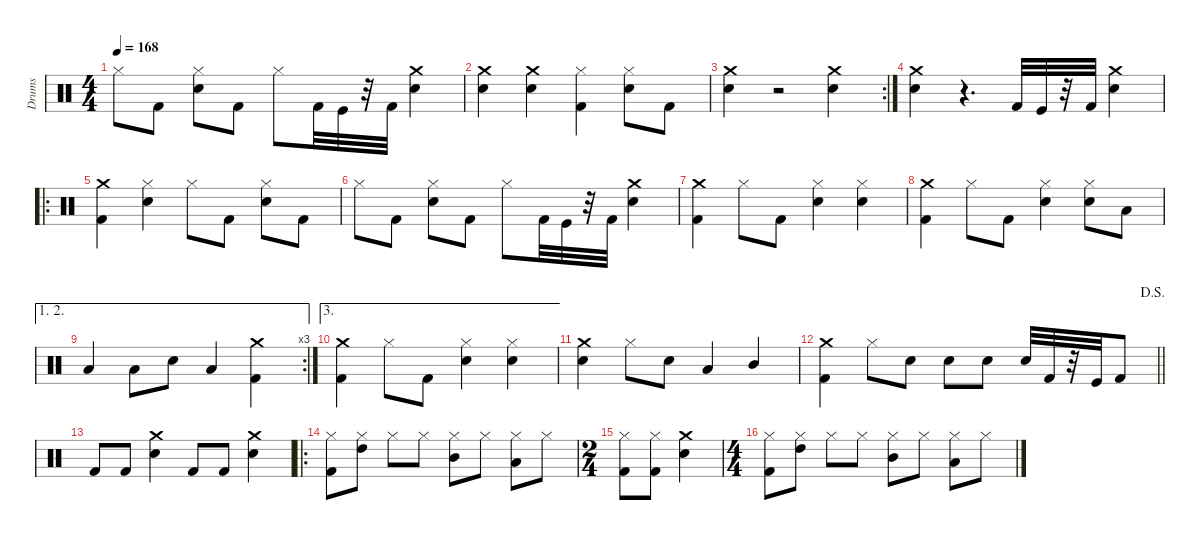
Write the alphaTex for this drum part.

\defaultSystemsLayout 4
\hideDynamics
\bracketExtendMode nobrackets
\firstSystemTrackNameMode fullname
\otherSystemsTrackNameOrientation horizontal
\track ("Drums" "drm.") {instrument percussion}
\staff {score}
\articulation defaults
\ts (4 4)
\tempo 168
\clef neutral
\ks c "Hi-Hat (closed)".8{dy fff beam Down} "Kick (hit) 2".8{beam Down}
("Snare (hit) 2" "Hi-Hat (closed)").8{beam Down} "Kick (hit) 2".8{beam Down} "Hi-Hat (closed)".8{beam Down} "Kick (hit) 2".32{beam Down} "Kick (hit)".32{beam Down} r.32{beam Down} "Kick (hit) 2".32{beam Down} ("Crash medium (hit)" "Snare (hit) 2").4{beam Down} |
("Crash medium (hit)" "Snare (hit) 2").4{beam Down} ("Crash medium (hit)" "Snare (hit) 2").4{beam Down} ("Hi-Hat (closed)" "Kick (hit) 2").4{beam Down} ("Snare (hit) 2" "Hi-Hat (closed)").8{beam Down} "Kick (hit) 2".8{beam Down} |
\rc 2
("Snare (hit) 2" "Crash medium (hit)").4{beam Down} r.2{beam Down} ("Crash medium (hit)" "Snare (hit) 2").4{beam Down} |
("Snare (hit) 2" "Crash medium (hit)").4{beam Down} r.4{d beam Down} "Kick (hit) 2".32{beam Up} "Kick (hit)".32{beam Up} r.32{beam Up} "Kick (hit) 2".32{beam Up} ("Crash medium (hit)" "Snare (hit) 2").4{beam Down} |
\ro
("Kick (hit) 2" "Crash medium (hit)").4{beam Down} ("Hi-Hat (closed)" "Snare (hit) 2").4{beam Down} "Hi-Hat (closed)".8{beam Down} "Kick (hit) 2".8{beam Down} ("Snare (hit) 2" "Hi-Hat (closed)").8{beam Down} "Kick (hit) 2".8{beam Down} |
"Hi-Hat (closed)".8{beam Down} "Kick (hit) 2".8{beam Down} ("Snare (hit) 2" "Hi-Hat (closed)").8{beam Down} "Kick (hit) 2".8{beam Down} "Hi-Hat (closed)".8{beam Down} "Kick (hit) 2".32{beam Down} "Kick (hit)".32{beam Down} r.32{beam Down} "Kick (hit) 2".32{beam Down} ("Crash medium (hit)" "Snare (hit) 2").4{beam Down} |
("Kick (hit) 2" "Crash medium (hit)").4{beam Down} "Hi-Hat (closed)".8{beam Down} "Kick (hit) 2".8{beam Down} ("Snare (hit) 2" "Hi-Hat (closed)").4{beam Down} ("Hi-Hat (closed)" "Snare (hit) 2").4{beam Down} |
("Kick (hit) 2" "Crash medium (hit)").4{beam Down} "Hi-Hat (closed)".8{beam Down} "Kick (hit) 2".8{beam Down} ("Snare (hit) 2" "Hi-Hat (closed)").4{beam Down} ("Hi-Hat (closed)" "Snare (hit) 2").8{beam Down} "Low Tom (hit)".8{beam Down} |
\ae (1 2)
\rc 3 "Low Tom (hit)".4{beam Up} "Low Tom (hit)".8{beam Down} "Snare (hit) 2".8{beam Down} "Low Tom (hit)".4{beam Up}
("Kick (hit) 2" "Crash medium (hit)").4{beam Down} |
\ae 3
("Kick (hit) 2" "Crash medium (hit)").4{beam Down} "Hi-Hat (closed)".8{beam Down} "Kick (hit) 2".8{beam Down} ("Snare (hit) 2" "Hi-Hat (closed)").4{beam Down} ("Hi-Hat (closed)" "Snare (hit) 2").4{beam Down} |
("Snare (hit) 2" "Crash medium (hit)").4{beam Down} "Hi-Hat (closed)".8{beam Down} "Snare (hit) 2".8{beam Down} "Low Tom (hit)".4{beam Up} "Mid Tom (hit)".4{beam Up} |
\jump dalsegno
\barLineRight lightlight
("Kick (hit) 2" "Crash medium (hit)").4{beam Down} "Hi-Hat (closed)".8{beam Down} "Snare (hit) 2".8{beam Down} "Snare (hit) 2".8{beam Down} "Snare (hit) 2".8{beam Down} "Snare (hit) 2".32{beam Up} "Kick (hit) 2".32{beam Up} r.32{beam Up} "Kick (hit)".32{beam Up} "Kick (hit) 2".8{beam Up} |
"Kick (hit) 2".8{beam Up} "Kick (hit) 2".8{beam Up} ("Snare (hit) 2" "Crash medium (hit)").4{beam Down} "Kick (hit) 2".8{beam Up} "Kick (hit) 2".8{beam Up} ("Crash medium (hit)" "Snare (hit) 2").4{beam Down} |
\ro
("Hi-Hat (closed)" "Kick (hit) 2").8{beam Down} ("High Tom (hit)" "Hi-Hat (closed)").8{beam Down} "Hi-Hat (closed)".8{beam Down} "Hi-Hat (closed)".8{beam Down} ("Mid Tom (hit)" "Hi-Hat (closed)").8{beam Down} "Hi-Hat (closed)".8{beam Down} ("Low Tom (hit)" "Hi-Hat (closed)").8{beam Down} "Hi-Hat (closed)".8{beam Down} |
\ts (2 4)
\beaming (8 2 2)
("Kick (hit) 2" "Hi-Hat (closed)").8{beam Down} ("Kick (hit) 2" "Hi-Hat (closed)").8{beam Down} ("Snare (hit) 2" "Crash medium (hit)").4{beam Down} |
\ts (4 4)
\beaming (8 2 2 2 2)
("Hi-Hat (closed)" "Kick (hit) 2").8{beam Down} ("High Tom (hit)" "Hi-Hat (closed)").8{beam Down} "Hi-Hat (closed)".8{beam Down} "Hi-Hat (closed)".8{beam Down} ("Mid Tom (hit)" "Hi-Hat (closed)").8{beam Down} "Hi-Hat (closed)".8{beam Down} ("Hi-Hat (closed)" "Low Tom (hit)").8{beam Down} "Hi-Hat (closed)".8{beam Down}
